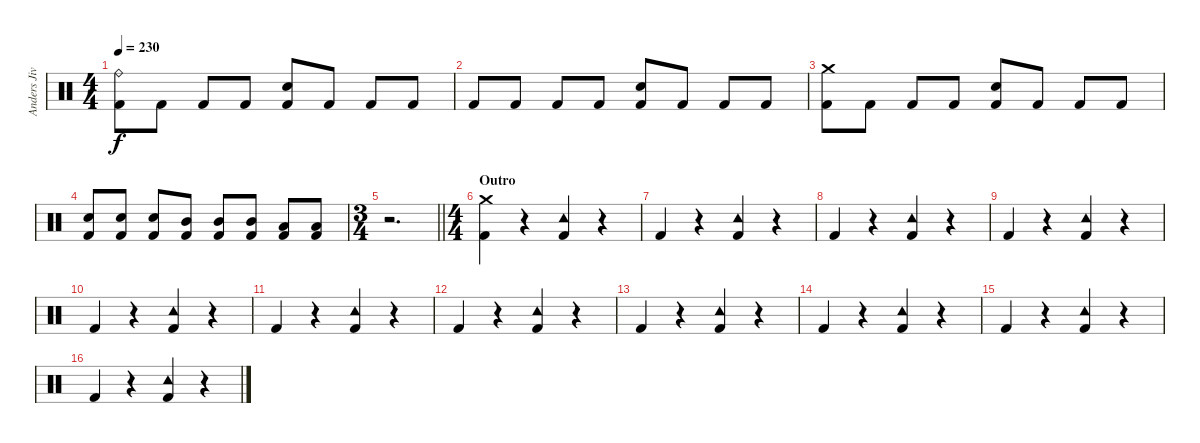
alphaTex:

\track ("Anders Jivarp" "Anders Jiv") {instrument percussion}
\staff {score}
\articulation defaults
\ts (4 4)
\tempo 230
\clef neutral
\ks c
("Kick (hit) 2" "Ride (bell)").8{dy f} "Kick (hit) 2".8 "Kick (hit) 2".8 "Kick (hit) 2".8 ("Kick (hit) 2" "Electric Snare (hit)").8 "Kick (hit) 2".8 "Kick (hit) 2".8 "Kick (hit) 2".8 |
"Kick (hit) 2".8 "Kick (hit) 2".8 "Kick (hit) 2".8 "Kick (hit) 2".8 ("Kick (hit) 2" "Electric Snare (hit)").8 "Kick (hit) 2".8 "Kick (hit) 2".8 "Kick (hit) 2".8 |
("Kick (hit) 2" "Crash medium (hit)").8 "Kick (hit) 2".8 "Kick (hit) 2".8 "Kick (hit) 2".8 ("Kick (hit) 2" "Electric Snare (hit)").8 "Kick (hit) 2".8 "Kick (hit) 2".8 "Kick (hit) 2".8 |
("Kick (hit) 2" "Electric Snare (hit)").8 ("Kick (hit) 2" "Electric Snare (hit)").8 ("Kick (hit) 2" "Electric Snare (hit)").8 ("Kick (hit) 2" "Mid Tom (hit)").8 ("Kick (hit) 2" "Mid Tom (hit)").8 ("Kick (hit) 2" "Mid Tom (hit)").8 ("Kick (hit) 2" "Low Tom (hit)").8 ("Kick (hit) 2" "Low Tom (hit)").8 |
\ts (3 4)
\barLineRight lightlight
r.2{d} |
\ts (4 4)
\section ("" "Outro")
("Kick (hit) 2" "Crash medium (hit)").4{volume 8} r.4 ("Kick (hit) 2" "Tambourine (hit)").4 r.4 |
"Kick (hit) 2".4 r.4 ("Kick (hit) 2" "Tambourine (hit)").4 r.4 |
"Kick (hit) 2".4 r.4 ("Kick (hit) 2" "Tambourine (hit)").4 r.4 |
"Kick (hit) 2".4 r.4 ("Kick (hit) 2" "Tambourine (hit)").4 r.4 |
"Kick (hit) 2".4 r.4 ("Kick (hit) 2" "Tambourine (hit)").4 r.4 |
"Kick (hit) 2".4 r.4 ("Kick (hit) 2" "Tambourine (hit)").4 r.4 |
"Kick (hit) 2".4 r.4 ("Kick (hit) 2" "Tambourine (hit)").4 r.4 |
"Kick (hit) 2".4 r.4 ("Kick (hit) 2" "Tambourine (hit)").4 r.4 |
"Kick (hit) 2".4 r.4 ("Kick (hit) 2" "Tambourine (hit)").4 r.4 |
"Kick (hit) 2".4 r.4 ("Kick (hit) 2" "Tambourine (hit)").4 r.4 |
"Kick (hit) 2".4 r.4 ("Kick (hit) 2" "Tambourine (hit)").4 r.4
